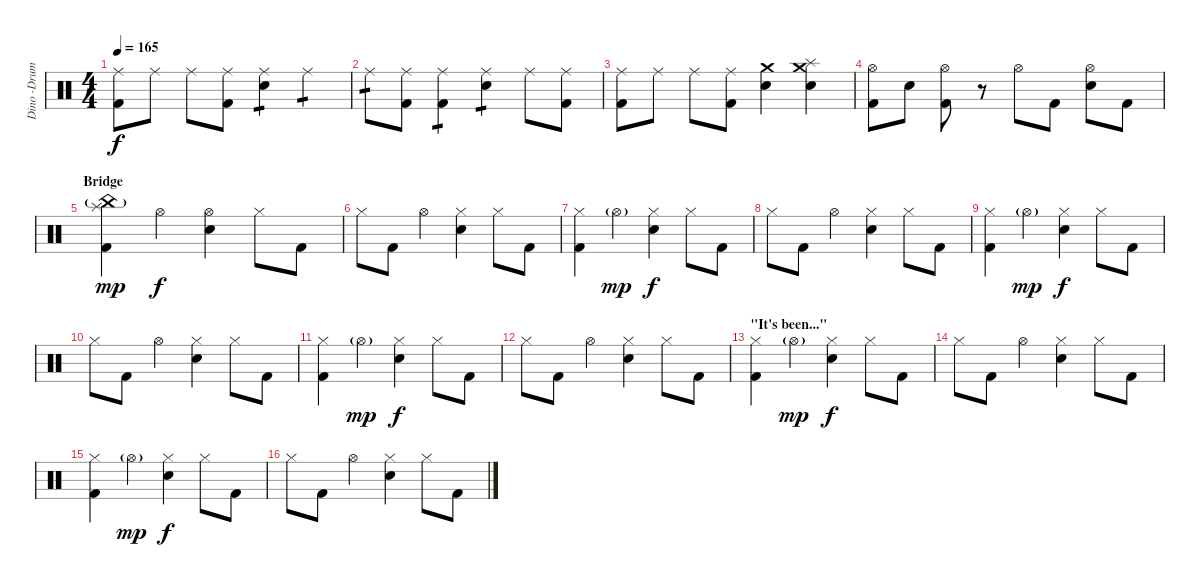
\track ("Dino -Drums" "Dino -Drum") {instrument percussion}
\staff {score}
\articulation defaults
\ts (4 4)
\tempo 165
\clef neutral
\ks c
("Ride (middle)" "Kick (hit) 2").8{dy f} "Ride (middle)".8 "Ride (middle)".8 ("Ride (middle)" "Kick (hit) 2").8 ("Ride (middle)" "Electric Snare (hit)").4{tp 1} "Ride (middle)".4{tp 1} |
"Ride (middle)".8{tp 1} ("Ride (middle)" "Kick (hit) 2").8 ("Ride (middle)" "Kick (hit) 2").4{tp 1} ("Ride (middle)" "Electric Snare (hit)").4{tp 1} "Ride (middle)".8 ("Ride (middle)" "Kick (hit) 2").8 |
("Ride (middle)" "Kick (hit) 2").8 "Ride (middle)".8 "Ride (middle)".8 ("Ride (middle)" "Kick (hit) 2").8 ("Crash medium (hit)" "Electric Snare (hit)").4 ("Crash medium (hit)" "Splash (hit)" "Electric Snare (hit)").4 |
("Hi-Hat (open)" "Kick (hit) 2").8 "Electric Snare (hit)".8 ("Hi-Hat (open)" "Kick (hit) 2").8 r.8 "Hi-Hat (open)".8 "Kick (hit) 2".8 ("Hi-Hat (open)" "Electric Snare (hit)").8 "Kick (hit) 2".8 |
\section ("" "Bridge")
("China (hit)"{g} "Splash (hit)" "Kick (hit) 2").4{dy mp} "Hi-Hat (open)".4{dy f} ("Hi-Hat (open)" "Electric Snare (hit)").4 "Hi-Hat (closed)".8 "Kick (hit) 2".8 |
"Hi-Hat (closed)".8 "Kick (hit) 2".8 "Hi-Hat (open)".4 ("Hi-Hat (closed)" "Electric Snare (hit)").4 "Hi-Hat (closed)".8 "Kick (hit) 2".8 |
("Hi-Hat (closed)" "Kick (hit) 2").4 "Hi-Hat (open)"{g}.4{dy mp} ("Hi-Hat (closed)" "Electric Snare (hit)").4{dy f} "Hi-Hat (closed)".8 "Kick (hit) 2".8 |
"Hi-Hat (closed)".8 "Kick (hit) 2".8 "Hi-Hat (open)".4 ("Hi-Hat (closed)" "Electric Snare (hit)").4 "Hi-Hat (closed)".8 "Kick (hit) 2".8 |
("Hi-Hat (closed)" "Kick (hit) 2").4 "Hi-Hat (open)"{g}.4{dy mp} ("Hi-Hat (closed)" "Electric Snare (hit)").4{dy f} "Hi-Hat (closed)".8 "Kick (hit) 2".8 |
"Hi-Hat (closed)".8 "Kick (hit) 2".8 "Hi-Hat (open)".4 ("Hi-Hat (closed)" "Electric Snare (hit)").4 "Hi-Hat (closed)".8 "Kick (hit) 2".8 |
("Hi-Hat (closed)" "Kick (hit) 2").4 "Hi-Hat (open)"{g}.4{dy mp} ("Hi-Hat (closed)" "Electric Snare (hit)").4{dy f} "Hi-Hat (closed)".8 "Kick (hit) 2".8 |
"Hi-Hat (closed)".8 "Kick (hit) 2".8 "Hi-Hat (open)".4 ("Hi-Hat (closed)" "Electric Snare (hit)").4 "Hi-Hat (closed)".8 "Kick (hit) 2".8 |
\section ("" "\"It's been...\"")
("Hi-Hat (closed)" "Kick (hit) 2").4 "Hi-Hat (open)"{g}.4{dy mp} ("Hi-Hat (closed)" "Electric Snare (hit)").4{dy f} "Hi-Hat (closed)".8 "Kick (hit) 2".8 |
"Hi-Hat (closed)".8 "Kick (hit) 2".8 "Hi-Hat (open)".4 ("Hi-Hat (closed)" "Electric Snare (hit)").4 "Hi-Hat (closed)".8 "Kick (hit) 2".8 |
("Hi-Hat (closed)" "Kick (hit) 2").4 "Hi-Hat (open)"{g}.4{dy mp} ("Hi-Hat (closed)" "Electric Snare (hit)").4{dy f} "Hi-Hat (closed)".8 "Kick (hit) 2".8 |
"Hi-Hat (closed)".8 "Kick (hit) 2".8 "Hi-Hat (open)".4 ("Hi-Hat (closed)" "Electric Snare (hit)").4 "Hi-Hat (closed)".8 "Kick (hit) 2".8
